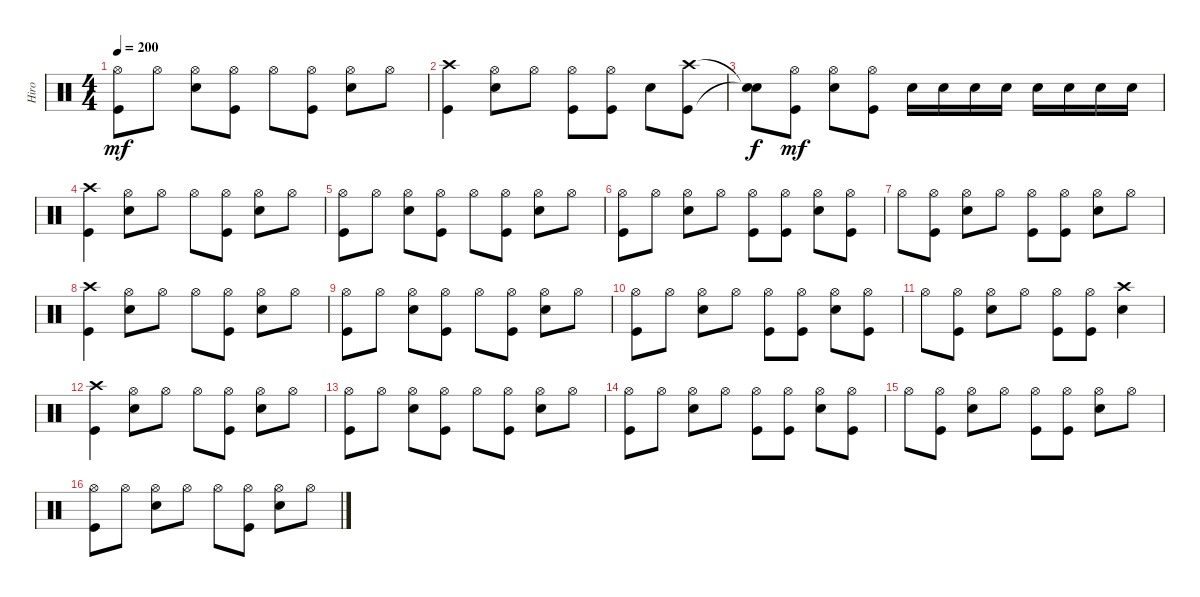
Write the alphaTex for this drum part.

\track ("Hiro" "Hiro") {instrument percussion}
\staff {score}
\articulation defaults
\ts (4 4)
\tempo 200
\clef neutral
\ks c
("Kick (hit)" "Hi-Hat (open)").8{dy mf} "Hi-Hat (open)".8 ("Electric Snare (hit)" "Hi-Hat (open)").8 ("Kick (hit)" "Hi-Hat (open)").8 "Hi-Hat (open)".8 ("Kick (hit)" "Hi-Hat (open)").8 ("Electric Snare (hit)" "Hi-Hat (open)").8 "Hi-Hat (open)".8 |
("Kick (hit)" "Crash high (hit)").4 ("Electric Snare (hit)" "Hi-Hat (open)").8 "Hi-Hat (open)".8 ("Kick (hit)" "Hi-Hat (open)").8 ("Kick (hit)" "Hi-Hat (open)").8 "Electric Snare (hit)".8 ("Crash high (hit)" "Kick (hit)").8 |
("Snare (hit)"{t} "Snare (hit)"{t}).8{dy f} ("Kick (hit)" "Hi-Hat (open)").8{dy mf} ("Electric Snare (hit)" "Hi-Hat (open)").8 ("Hi-Hat (open)" "Kick (hit)").8 "Electric Snare (hit)".16 "Electric Snare (hit)".16 "Electric Snare (hit)".16 "Electric Snare (hit)".16 "Electric Snare (hit)".16 "Electric Snare (hit)".16 "Electric Snare (hit)".16 "Electric Snare (hit)".16 |
("Kick (hit)" "Crash high (hit)").4 ("Hi-Hat (open)" "Electric Snare (hit)").8 "Hi-Hat (open)".8 "Hi-Hat (open)".8 ("Hi-Hat (open)" "Kick (hit)").8 ("Hi-Hat (open)" "Electric Snare (hit)").8 "Hi-Hat (open)".8 |
("Hi-Hat (open)" "Kick (hit)").8 "Hi-Hat (open)".8 ("Hi-Hat (open)" "Electric Snare (hit)").8 ("Hi-Hat (open)" "Kick (hit)").8 "Hi-Hat (open)".8 ("Hi-Hat (open)" "Kick (hit)").8 ("Hi-Hat (open)" "Electric Snare (hit)").8 "Hi-Hat (open)".8 |
("Hi-Hat (open)" "Kick (hit)").8 "Hi-Hat (open)".8 ("Hi-Hat (open)" "Electric Snare (hit)").8 "Hi-Hat (open)".8 ("Hi-Hat (open)" "Kick (hit)").8 ("Hi-Hat (open)" "Kick (hit)").8 ("Hi-Hat (open)" "Electric Snare (hit)").8 ("Hi-Hat (open)" "Kick (hit)").8 |
"Hi-Hat (open)".8 ("Hi-Hat (open)" "Kick (hit)").8 ("Hi-Hat (open)" "Electric Snare (hit)").8 "Hi-Hat (open)".8 ("Hi-Hat (open)" "Kick (hit)").8 ("Hi-Hat (open)" "Kick (hit)").8 ("Hi-Hat (open)" "Electric Snare (hit)").8 "Hi-Hat (open)".8 |
("Crash high (hit)" "Kick (hit)").4 ("Electric Snare (hit)" "Hi-Hat (open)").8 "Hi-Hat (open)".8 "Hi-Hat (open)".8 ("Kick (hit)" "Hi-Hat (open)").8 ("Electric Snare (hit)" "Hi-Hat (open)").8 "Hi-Hat (open)".8 |
("Kick (hit)" "Hi-Hat (open)").8 "Hi-Hat (open)".8 ("Electric Snare (hit)" "Hi-Hat (open)").8 ("Kick (hit)" "Hi-Hat (open)").8 "Hi-Hat (open)".8 ("Kick (hit)" "Hi-Hat (open)").8 ("Electric Snare (hit)" "Hi-Hat (open)").8 "Hi-Hat (open)".8 |
("Kick (hit)" "Hi-Hat (open)").8 "Hi-Hat (open)".8 ("Electric Snare (hit)" "Hi-Hat (open)").8 "Hi-Hat (open)".8 ("Kick (hit)" "Hi-Hat (open)").8 ("Kick (hit)" "Hi-Hat (open)").8 ("Electric Snare (hit)" "Hi-Hat (open)").8 ("Kick (hit)" "Hi-Hat (open)").8 |
"Hi-Hat (open)".8 ("Kick (hit)" "Hi-Hat (open)").8 ("Electric Snare (hit)" "Hi-Hat (open)").8 "Hi-Hat (open)".8 ("Kick (hit)" "Hi-Hat (open)").8 ("Kick (hit)" "Hi-Hat (open)").8 ("Electric Snare (hit)" "Crash high (hit)").4 |
("Crash high (hit)" "Kick (hit)").4 ("Electric Snare (hit)" "Hi-Hat (open)").8 "Hi-Hat (open)".8 "Hi-Hat (open)".8 ("Kick (hit)" "Hi-Hat (open)").8 ("Electric Snare (hit)" "Hi-Hat (open)").8 "Hi-Hat (open)".8 |
("Kick (hit)" "Hi-Hat (open)").8 "Hi-Hat (open)".8 ("Electric Snare (hit)" "Hi-Hat (open)").8 ("Kick (hit)" "Hi-Hat (open)").8 "Hi-Hat (open)".8 ("Kick (hit)" "Hi-Hat (open)").8 ("Electric Snare (hit)" "Hi-Hat (open)").8 "Hi-Hat (open)".8 |
("Kick (hit)" "Hi-Hat (open)").8 "Hi-Hat (open)".8 ("Electric Snare (hit)" "Hi-Hat (open)").8 "Hi-Hat (open)".8 ("Kick (hit)" "Hi-Hat (open)").8 ("Kick (hit)" "Hi-Hat (open)").8 ("Electric Snare (hit)" "Hi-Hat (open)").8 ("Kick (hit)" "Hi-Hat (open)").8 |
"Hi-Hat (open)".8 ("Kick (hit)" "Hi-Hat (open)").8 ("Electric Snare (hit)" "Hi-Hat (open)").8 "Hi-Hat (open)".8 ("Kick (hit)" "Hi-Hat (open)").8 ("Kick (hit)" "Hi-Hat (open)").8 ("Electric Snare (hit)" "Hi-Hat (open)").8 "Hi-Hat (open)".8 |
("Hi-Hat (open)" "Kick (hit)").8 "Hi-Hat (open)".8 ("Electric Snare (hit)" "Hi-Hat (open)").8 "Hi-Hat (open)".8 "Hi-Hat (open)".8 ("Kick (hit)" "Hi-Hat (open)").8 ("Electric Snare (hit)" "Hi-Hat (open)").8 "Hi-Hat (open)".8
